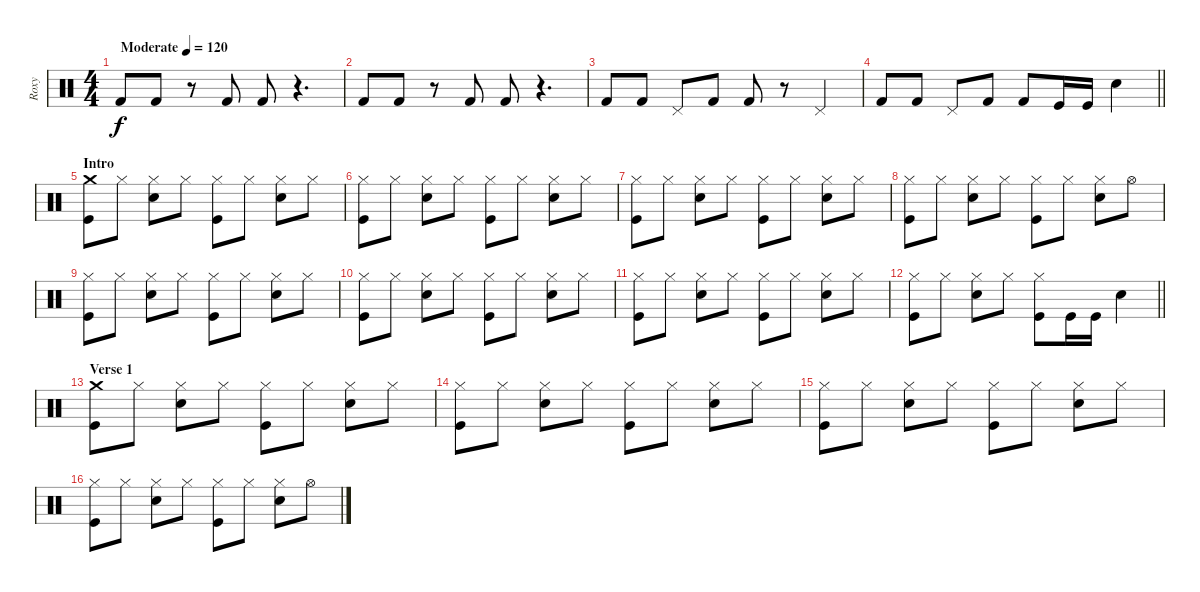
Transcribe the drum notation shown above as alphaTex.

\track ("Roxy" "Roxy") {instrument percussion}
\staff {score}
\articulation defaults
\ts (4 4)
\tempo (120 "Moderate")
\clef neutral
\ks c "Kick (hit) 2".8{dy f} "Kick (hit) 2".8
r.8 "Kick (hit) 2".8 "Kick (hit) 2".8 r.4{d} |
"Kick (hit) 2".8 "Kick (hit) 2".8 r.8 "Kick (hit) 2".8 "Kick (hit) 2".8 r.4{d} |
"Kick (hit) 2".8 "Kick (hit) 2".8 "Pedal Hi-Hat (hit)".8 "Kick (hit) 2".8 "Kick (hit) 2".8 r.8 "Pedal Hi-Hat (hit)".4 |
\barLineRight lightlight "Kick (hit) 2".8 "Kick (hit) 2".8 "Pedal Hi-Hat (hit)".8 "Kick (hit) 2".8 "Kick (hit) 2".8 "Kick (hit)".16 "Kick (hit)".16 "Electric Snare (hit)".4
|
\section ("" "Intro")
("Crash medium (hit)" "Kick (hit)").8 "Hi-Hat (closed)".8 ("Hi-Hat (closed)" "Electric Snare (hit)").8 "Hi-Hat (closed)".8 ("Hi-Hat (closed)" "Kick (hit)").8 "Hi-Hat (closed)".8 ("Hi-Hat (closed)" "Electric Snare (hit)").8 "Hi-Hat (closed)".8 |
("Hi-Hat (closed)" "Kick (hit)").8 "Hi-Hat (closed)".8 ("Hi-Hat (closed)" "Electric Snare (hit)").8 "Hi-Hat (closed)".8 ("Hi-Hat (closed)" "Kick (hit)").8 "Hi-Hat (closed)".8 ("Hi-Hat (closed)" "Electric Snare (hit)").8 "Hi-Hat (closed)".8 |
("Hi-Hat (closed)" "Kick (hit)").8 "Hi-Hat (closed)".8 ("Hi-Hat (closed)" "Electric Snare (hit)").8 "Hi-Hat (closed)".8 ("Hi-Hat (closed)" "Kick (hit)").8 "Hi-Hat (closed)".8 ("Hi-Hat (closed)" "Electric Snare (hit)").8 "Hi-Hat (closed)".8 |
("Hi-Hat (closed)" "Kick (hit)").8 "Hi-Hat (closed)".8 ("Hi-Hat (closed)" "Electric Snare (hit)").8 "Hi-Hat (closed)".8 ("Hi-Hat (closed)" "Kick (hit)").8 "Hi-Hat (closed)".8 ("Hi-Hat (closed)" "Electric Snare (hit)").8 "Hi-Hat (open)".8 |
("Hi-Hat (closed)" "Kick (hit)").8 "Hi-Hat (closed)".8 ("Hi-Hat (closed)" "Electric Snare (hit)").8 "Hi-Hat (closed)".8 ("Hi-Hat (closed)" "Kick (hit)").8 "Hi-Hat (closed)".8 ("Hi-Hat (closed)" "Electric Snare (hit)").8 "Hi-Hat (closed)".8 |
("Hi-Hat (closed)" "Kick (hit)").8 "Hi-Hat (closed)".8 ("Hi-Hat (closed)" "Electric Snare (hit)").8 "Hi-Hat (closed)".8 ("Hi-Hat (closed)" "Kick (hit)").8 "Hi-Hat (closed)".8 ("Hi-Hat (closed)" "Electric Snare (hit)").8 "Hi-Hat (closed)".8 |
("Hi-Hat (closed)" "Kick (hit)").8 "Hi-Hat (closed)".8 ("Hi-Hat (closed)" "Electric Snare (hit)").8 "Hi-Hat (closed)".8 ("Hi-Hat (closed)" "Kick (hit)").8 "Hi-Hat (closed)".8 ("Hi-Hat (closed)" "Electric Snare (hit)").8 "Hi-Hat (closed)".8 |
\barLineRight lightlight
("Hi-Hat (closed)" "Kick (hit)").8 "Hi-Hat (closed)".8 ("Hi-Hat (closed)" "Electric Snare (hit)").8 "Hi-Hat (closed)".8 ("Hi-Hat (closed)" "Kick (hit)").8 "Kick (hit)".16 "Kick (hit)".16 "Electric Snare (hit)".4 |
\section ("" "Verse 1")
("Crash medium (hit)" "Kick (hit)").8 "Hi-Hat (closed)".8 ("Hi-Hat (closed)" "Electric Snare (hit)").8 "Hi-Hat (closed)".8 ("Hi-Hat (closed)" "Kick (hit)").8 "Hi-Hat (closed)".8 ("Hi-Hat (closed)" "Electric Snare (hit)").8 "Hi-Hat (closed)".8 |
("Hi-Hat (closed)" "Kick (hit)").8 "Hi-Hat (closed)".8 ("Hi-Hat (closed)" "Electric Snare (hit)").8 "Hi-Hat (closed)".8 ("Hi-Hat (closed)" "Kick (hit)").8 "Hi-Hat (closed)".8 ("Hi-Hat (closed)" "Electric Snare (hit)").8 "Hi-Hat (closed)".8 |
("Hi-Hat (closed)" "Kick (hit)").8 "Hi-Hat (closed)".8 ("Hi-Hat (closed)" "Electric Snare (hit)").8 "Hi-Hat (closed)".8 ("Hi-Hat (closed)" "Kick (hit)").8 "Hi-Hat (closed)".8 ("Hi-Hat (closed)" "Electric Snare (hit)").8 "Hi-Hat (closed)".8 |
("Hi-Hat (closed)" "Kick (hit)").8 "Hi-Hat (closed)".8 ("Hi-Hat (closed)" "Electric Snare (hit)").8 "Hi-Hat (closed)".8 ("Hi-Hat (closed)" "Kick (hit)").8 "Hi-Hat (closed)".8 ("Hi-Hat (closed)" "Electric Snare (hit)").8 "Hi-Hat (open)".8
